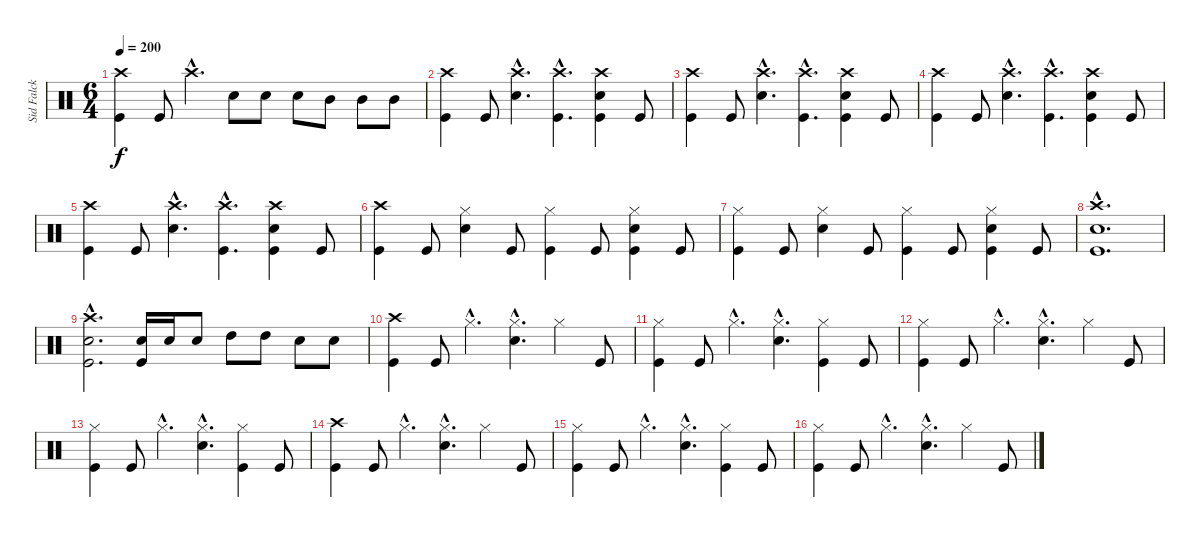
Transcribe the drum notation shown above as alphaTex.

\track ("Sid Falck - drums" "Sid Falck ") {instrument percussion}
\staff {score}
\articulation defaults
\ts (6 4)
\tempo 200
\clef neutral
\ks c
("Crash high (hit)" "Kick (hit)").4{dy f} "Kick (hit)".8 "Crash high (hit)"{hac}.4{d} "Electric Snare (hit)".8 "Electric Snare (hit)".8 "Electric Snare (hit)".8 "Mid Tom (hit)".8 "Mid Tom (hit)".8 "Mid Tom (hit)".8 |
("Crash high (hit)" "Kick (hit)").4 "Kick (hit)".8 ("Crash high (hit)"{hac} "Electric Snare (hit)"{hac}).4{d} ("Crash high (hit)"{hac} "Kick (hit)"{hac}).4{d} ("Crash high (hit)" "Electric Snare (hit)" "Kick (hit)").4 "Kick (hit)".8 |
("Crash high (hit)" "Kick (hit)").4 "Kick (hit)".8 ("Crash high (hit)"{hac} "Electric Snare (hit)"{hac}).4{d} ("Crash high (hit)"{hac} "Kick (hit)"{hac}).4{d} ("Crash high (hit)" "Electric Snare (hit)" "Kick (hit)").4 "Kick (hit)".8 |
("Crash high (hit)" "Kick (hit)").4 "Kick (hit)".8 ("Crash high (hit)"{hac} "Electric Snare (hit)"{hac}).4{d} ("Crash high (hit)"{hac} "Kick (hit)"{hac}).4{d} ("Crash high (hit)" "Electric Snare (hit)" "Kick (hit)").4 "Kick (hit)".8 |
("Crash high (hit)" "Kick (hit)").4 "Kick (hit)".8 ("Crash high (hit)"{hac} "Electric Snare (hit)"{hac}).4{d} ("Crash high (hit)"{hac} "Kick (hit)"{hac}).4{d} ("Crash high (hit)" "Electric Snare (hit)" "Kick (hit)").4 "Kick (hit)".8 |
("Crash high (hit)" "Kick (hit)").4 "Kick (hit)".8 ("Hi-Hat (closed)" "Electric Snare (hit)").4 "Kick (hit)".8 ("Hi-Hat (closed)" "Kick (hit)").4 "Kick (hit)".8 ("Hi-Hat (closed)" "Electric Snare (hit)" "Kick (hit)").4 "Kick (hit)".8 |
("Hi-Hat (closed)" "Kick (hit)").4 "Kick (hit)".8 ("Hi-Hat (closed)" "Electric Snare (hit)").4 "Kick (hit)".8 ("Hi-Hat (closed)" "Kick (hit)").4 "Kick (hit)".8 ("Hi-Hat (closed)" "Electric Snare (hit)" "Kick (hit)").4 "Kick (hit)".8 |
("Crash high (hit)"{hac} "Electric Snare (hit)"{hac} "Kick (hit)"{hac}).1{d} |
("Crash high (hit)"{hac} "Electric Snare (hit)"{hac} "Kick (hit)"{hac}).2{d} ("Electric Snare (hit)" "Kick (hit)").16 "Electric Snare (hit)".16 "Electric Snare (hit)".8 "High Tom (hit)".8 "High Tom (hit)".8 "Electric Snare (hit)".8 "Electric Snare (hit)".8 |
("Crash high (hit)" "Kick (hit)").4 "Kick (hit)".8 "Hi-Hat (closed)"{hac}.4{d} ("Hi-Hat (closed)"{hac} "Electric Snare (hit)"{hac}).4{d} "Hi-Hat (closed)".4 "Kick (hit)".8 |
("Hi-Hat (closed)" "Kick (hit)").4 "Kick (hit)".8 "Hi-Hat (closed)"{hac}.4{d} ("Hi-Hat (closed)"{hac} "Electric Snare (hit)"{hac}).4{d} ("Hi-Hat (closed)" "Kick (hit)").4 "Kick (hit)".8 |
("Hi-Hat (closed)" "Kick (hit)").4 "Kick (hit)".8 "Hi-Hat (closed)"{hac}.4{d} ("Hi-Hat (closed)"{hac} "Electric Snare (hit)"{hac}).4{d} "Hi-Hat (closed)".4 "Kick (hit)".8 |
("Hi-Hat (closed)" "Kick (hit)").4 "Kick (hit)".8 "Hi-Hat (closed)"{hac}.4{d} ("Hi-Hat (closed)"{hac} "Electric Snare (hit)"{hac}).4{d} ("Hi-Hat (closed)" "Kick (hit)").4 "Kick (hit)".8 |
("Crash high (hit)" "Kick (hit)").4 "Kick (hit)".8 "Hi-Hat (closed)"{hac}.4{d} ("Hi-Hat (closed)"{hac} "Electric Snare (hit)"{hac}).4{d} "Hi-Hat (closed)".4 "Kick (hit)".8 |
("Hi-Hat (closed)" "Kick (hit)").4 "Kick (hit)".8 "Hi-Hat (closed)"{hac}.4{d} ("Hi-Hat (closed)"{hac} "Electric Snare (hit)"{hac}).4{d} ("Hi-Hat (closed)" "Kick (hit)").4 "Kick (hit)".8 |
("Hi-Hat (closed)" "Kick (hit)").4 "Kick (hit)".8 "Hi-Hat (closed)"{hac}.4{d} ("Hi-Hat (closed)"{hac} "Electric Snare (hit)"{hac}).4{d} "Hi-Hat (closed)".4 "Kick (hit)".8
